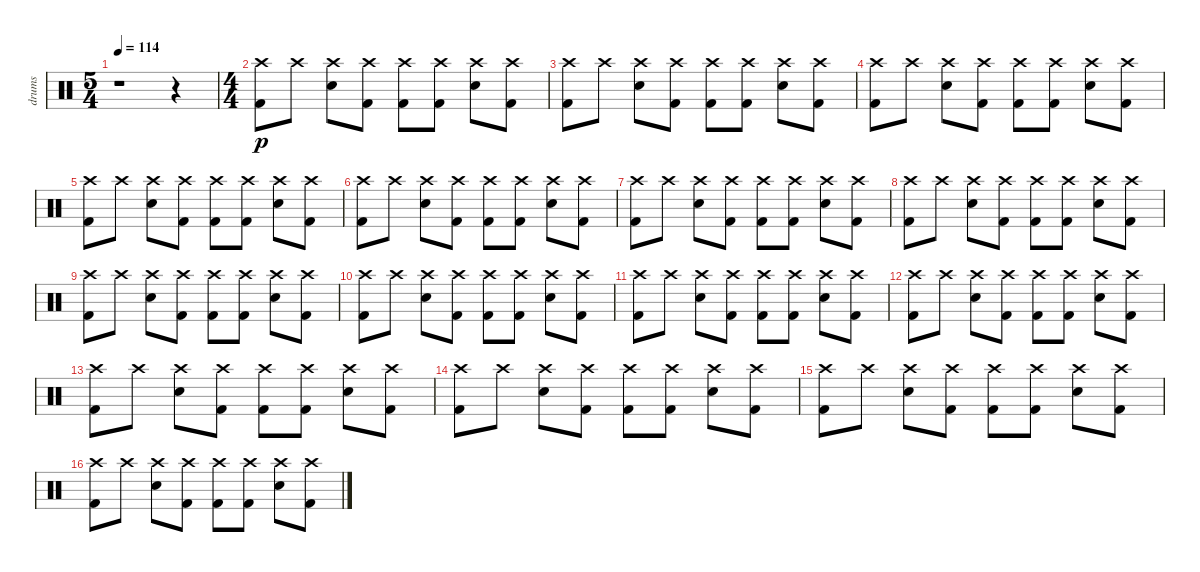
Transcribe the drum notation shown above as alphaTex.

\track ("drums" "drums") {instrument percussion}
\staff {score}
\articulation defaults
\ts (5 4)
\tempo 114
\clef neutral
\ks c
r.1{dy p} r.4 |
\ts (4 4)
("Kick (hit) 2" "Crash high (hit)").8 "Crash high (hit)".8 ("Snare (hit) 2" "Crash high (hit)").8 ("Kick (hit) 2" "Crash high (hit)").8 ("Kick (hit) 2" "Crash high (hit)").8 ("Kick (hit) 2" "Crash high (hit)").8 ("Snare (hit) 2" "Crash high (hit)").8 ("Kick (hit) 2" "Crash high (hit)").8 |
("Kick (hit) 2" "Crash high (hit)").8 "Crash high (hit)".8 ("Snare (hit) 2" "Crash high (hit)").8 ("Kick (hit) 2" "Crash high (hit)").8 ("Kick (hit) 2" "Crash high (hit)").8 ("Kick (hit) 2" "Crash high (hit)").8 ("Snare (hit) 2" "Crash high (hit)").8 ("Kick (hit) 2" "Crash high (hit)").8 |
("Kick (hit) 2" "Crash high (hit)").8 "Crash high (hit)".8 ("Snare (hit) 2" "Crash high (hit)").8 ("Kick (hit) 2" "Crash high (hit)").8 ("Kick (hit) 2" "Crash high (hit)").8 ("Kick (hit) 2" "Crash high (hit)").8 ("Snare (hit) 2" "Crash high (hit)").8 ("Kick (hit) 2" "Crash high (hit)").8 |
("Kick (hit) 2" "Crash high (hit)").8 "Crash high (hit)".8 ("Snare (hit) 2" "Crash high (hit)").8 ("Kick (hit) 2" "Crash high (hit)").8 ("Kick (hit) 2" "Crash high (hit)").8 ("Kick (hit) 2" "Crash high (hit)").8 ("Snare (hit) 2" "Crash high (hit)").8 ("Kick (hit) 2" "Crash high (hit)").8 |
("Kick (hit) 2" "Crash high (hit)").8 "Crash high (hit)".8 ("Snare (hit) 2" "Crash high (hit)").8 ("Kick (hit) 2" "Crash high (hit)").8 ("Kick (hit) 2" "Crash high (hit)").8 ("Kick (hit) 2" "Crash high (hit)").8 ("Snare (hit) 2" "Crash high (hit)").8 ("Kick (hit) 2" "Crash high (hit)").8 |
("Kick (hit) 2" "Crash high (hit)").8 "Crash high (hit)".8 ("Snare (hit) 2" "Crash high (hit)").8 ("Kick (hit) 2" "Crash high (hit)").8 ("Kick (hit) 2" "Crash high (hit)").8 ("Kick (hit) 2" "Crash high (hit)").8 ("Snare (hit) 2" "Crash high (hit)").8 ("Kick (hit) 2" "Crash high (hit)").8 |
("Kick (hit) 2" "Crash high (hit)").8 "Crash high (hit)".8 ("Snare (hit) 2" "Crash high (hit)").8 ("Kick (hit) 2" "Crash high (hit)").8 ("Kick (hit) 2" "Crash high (hit)").8 ("Kick (hit) 2" "Crash high (hit)").8 ("Snare (hit) 2" "Crash high (hit)").8 ("Kick (hit) 2" "Crash high (hit)").8 |
("Kick (hit) 2" "Crash high (hit)").8 "Crash high (hit)".8 ("Snare (hit) 2" "Crash high (hit)").8 ("Kick (hit) 2" "Crash high (hit)").8 ("Kick (hit) 2" "Crash high (hit)").8 ("Kick (hit) 2" "Crash high (hit)").8 ("Snare (hit) 2" "Crash high (hit)").8 ("Kick (hit) 2" "Crash high (hit)").8 |
("Kick (hit) 2" "Crash high (hit)").8 "Crash high (hit)".8 ("Snare (hit) 2" "Crash high (hit)").8 ("Kick (hit) 2" "Crash high (hit)").8 ("Kick (hit) 2" "Crash high (hit)").8 ("Kick (hit) 2" "Crash high (hit)").8 ("Snare (hit) 2" "Crash high (hit)").8 ("Kick (hit) 2" "Crash high (hit)").8 |
("Kick (hit) 2" "Crash high (hit)").8 "Crash high (hit)".8 ("Snare (hit) 2" "Crash high (hit)").8 ("Kick (hit) 2" "Crash high (hit)").8 ("Kick (hit) 2" "Crash high (hit)").8 ("Kick (hit) 2" "Crash high (hit)").8 ("Snare (hit) 2" "Crash high (hit)").8 ("Kick (hit) 2" "Crash high (hit)").8 |
("Kick (hit) 2" "Crash high (hit)").8 "Crash high (hit)".8 ("Snare (hit) 2" "Crash high (hit)").8 ("Kick (hit) 2" "Crash high (hit)").8 ("Kick (hit) 2" "Crash high (hit)").8 ("Kick (hit) 2" "Crash high (hit)").8 ("Snare (hit) 2" "Crash high (hit)").8 ("Kick (hit) 2" "Crash high (hit)").8 |
("Kick (hit) 2" "Crash high (hit)").8 "Crash high (hit)".8 ("Snare (hit) 2" "Crash high (hit)").8 ("Kick (hit) 2" "Crash high (hit)").8 ("Kick (hit) 2" "Crash high (hit)").8 ("Kick (hit) 2" "Crash high (hit)").8 ("Snare (hit) 2" "Crash high (hit)").8 ("Kick (hit) 2" "Crash high (hit)").8 |
("Kick (hit) 2" "Crash high (hit)").8 "Crash high (hit)".8 ("Snare (hit) 2" "Crash high (hit)").8 ("Kick (hit) 2" "Crash high (hit)").8 ("Kick (hit) 2" "Crash high (hit)").8 ("Kick (hit) 2" "Crash high (hit)").8 ("Snare (hit) 2" "Crash high (hit)").8 ("Kick (hit) 2" "Crash high (hit)").8 |
("Kick (hit) 2" "Crash high (hit)").8 "Crash high (hit)".8 ("Snare (hit) 2" "Crash high (hit)").8 ("Kick (hit) 2" "Crash high (hit)").8 ("Kick (hit) 2" "Crash high (hit)").8 ("Kick (hit) 2" "Crash high (hit)").8 ("Snare (hit) 2" "Crash high (hit)").8 ("Kick (hit) 2" "Crash high (hit)").8 |
("Kick (hit) 2" "Crash high (hit)").8 "Crash high (hit)".8 ("Snare (hit) 2" "Crash high (hit)").8 ("Kick (hit) 2" "Crash high (hit)").8 ("Kick (hit) 2" "Crash high (hit)").8 ("Kick (hit) 2" "Crash high (hit)").8 ("Snare (hit) 2" "Crash high (hit)").8 ("Kick (hit) 2" "Crash high (hit)").8
